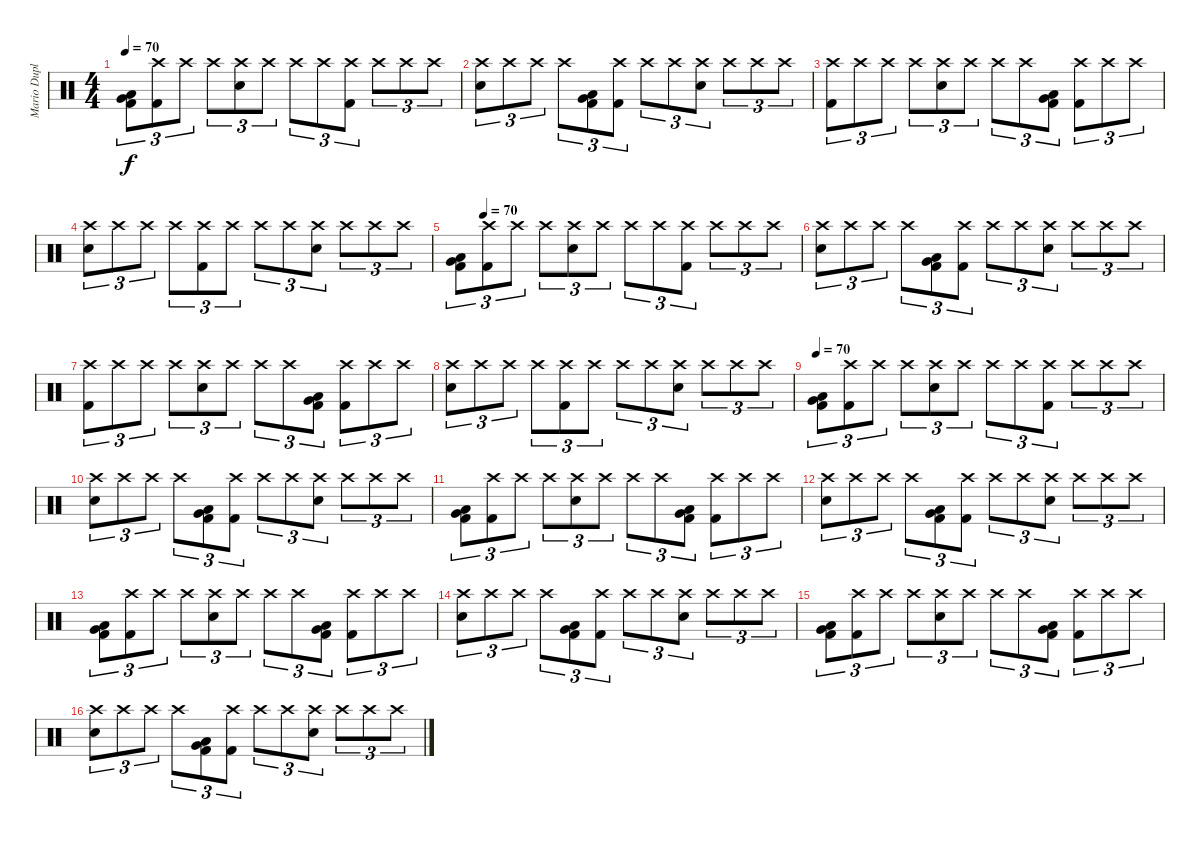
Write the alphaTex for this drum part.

\track ("Mario Duplantier " "Mario Dupl") {instrument percussion}
\staff {score}
\articulation defaults
\ts (4 4)
\tempo 70
\clef neutral
\ks c
("Kick (hit) 2" "Very Low Tom (hit)" "Low Tom (hit)").8{tu (3 2) dy f} ("Crash high (hit)" "Kick (hit) 2").8{tu (3 2)} "Crash high (hit)".8{tu (3 2)} "Crash high (hit)".8{tu (3 2)} ("Crash high (hit)" "Electric Snare (hit)").8{tu (3 2)} "Crash high (hit)".8{tu (3 2)} "Crash high (hit)".8{tu (3 2)} "Crash high (hit)".8{tu (3 2)} ("Crash high (hit)" "Kick (hit) 2").8{tu (3 2)} "Crash high (hit)".8{tu (3 2)} "Crash high (hit)".8{tu (3 2)} "Crash high (hit)".8{tu (3 2)} |
("Crash high (hit)" "Electric Snare (hit)").8{tu (3 2)} "Crash high (hit)".8{tu (3 2)} "Crash high (hit)".8{tu (3 2)} "Crash high (hit)".8{tu (3 2)} ("Kick (hit) 2" "Very Low Tom (hit)" "Low Tom (hit)").8{tu (3 2)} ("Crash high (hit)" "Kick (hit) 2").8{tu (3 2)} "Crash high (hit)".8{tu (3 2)} "Crash high (hit)".8{tu (3 2)} ("Crash high (hit)" "Electric Snare (hit)").8{tu (3 2)} "Crash high (hit)".8{tu (3 2)} "Crash high (hit)".8{tu (3 2)} "Crash high (hit)".8{tu (3 2)} |
("Crash high (hit)" "Kick (hit) 2").8{tu (3 2)} "Crash high (hit)".8{tu (3 2)} "Crash high (hit)".8{tu (3 2)} "Crash high (hit)".8{tu (3 2)} ("Crash high (hit)" "Electric Snare (hit)").8{tu (3 2)} "Crash high (hit)".8{tu (3 2)} "Crash high (hit)".8{tu (3 2)} "Crash high (hit)".8{tu (3 2)} ("Kick (hit) 2" "Low Tom (hit)" "Very Low Tom (hit)").8{tu (3 2)} ("Crash high (hit)" "Kick (hit) 2").8{tu (3 2)} "Crash high (hit)".8{tu (3 2)} "Crash high (hit)".8{tu (3 2)} |
("Crash high (hit)" "Electric Snare (hit)").8{tu (3 2)} "Crash high (hit)".8{tu (3 2)} "Crash high (hit)".8{tu (3 2)} "Crash high (hit)".8{tu (3 2)} ("Crash high (hit)" "Kick (hit) 2").8{tu (3 2)} "Crash high (hit)".8{tu (3 2)} "Crash high (hit)".8{tu (3 2)} "Crash high (hit)".8{tu (3 2)} ("Crash high (hit)" "Electric Snare (hit)").8{tu (3 2)} "Crash high (hit)".8{tu (3 2)} "Crash high (hit)".8{tu (3 2)} "Crash high (hit)".8{tu (3 2)} |
\tempo (70 0.08333333333333333)
("Kick (hit) 2" "Very Low Tom (hit)" "Low Tom (hit)").8{tu (3 2)} ("Crash high (hit)" "Kick (hit) 2").8{tu (3 2)} "Crash high (hit)".8{tu (3 2)} "Crash high (hit)".8{tu (3 2)} ("Crash high (hit)" "Electric Snare (hit)").8{tu (3 2)} "Crash high (hit)".8{tu (3 2)} "Crash high (hit)".8{tu (3 2)} "Crash high (hit)".8{tu (3 2)} ("Crash high (hit)" "Kick (hit) 2").8{tu (3 2)} "Crash high (hit)".8{tu (3 2)} "Crash high (hit)".8{tu (3 2)} "Crash high (hit)".8{tu (3 2)} |
("Crash high (hit)" "Electric Snare (hit)").8{tu (3 2)} "Crash high (hit)".8{tu (3 2)} "Crash high (hit)".8{tu (3 2)} "Crash high (hit)".8{tu (3 2)} ("Kick (hit) 2" "Very Low Tom (hit)" "Low Tom (hit)").8{tu (3 2)} ("Crash high (hit)" "Kick (hit) 2").8{tu (3 2)} "Crash high (hit)".8{tu (3 2)} "Crash high (hit)".8{tu (3 2)} ("Crash high (hit)" "Electric Snare (hit)").8{tu (3 2)} "Crash high (hit)".8{tu (3 2)} "Crash high (hit)".8{tu (3 2)} "Crash high (hit)".8{tu (3 2)} |
("Crash high (hit)" "Kick (hit) 2").8{tu (3 2)} "Crash high (hit)".8{tu (3 2)} "Crash high (hit)".8{tu (3 2)} "Crash high (hit)".8{tu (3 2)} ("Crash high (hit)" "Electric Snare (hit)").8{tu (3 2)} "Crash high (hit)".8{tu (3 2)} "Crash high (hit)".8{tu (3 2)} "Crash high (hit)".8{tu (3 2)} ("Kick (hit) 2" "Low Tom (hit)" "Very Low Tom (hit)").8{tu (3 2)} ("Crash high (hit)" "Kick (hit) 2").8{tu (3 2)} "Crash high (hit)".8{tu (3 2)} "Crash high (hit)".8{tu (3 2)} |
("Crash high (hit)" "Electric Snare (hit)").8{tu (3 2)} "Crash high (hit)".8{tu (3 2)} "Crash high (hit)".8{tu (3 2)} "Crash high (hit)".8{tu (3 2)} ("Crash high (hit)" "Kick (hit) 2").8{tu (3 2)} "Crash high (hit)".8{tu (3 2)} "Crash high (hit)".8{tu (3 2)} "Crash high (hit)".8{tu (3 2)} ("Crash high (hit)" "Electric Snare (hit)").8{tu (3 2)} "Crash high (hit)".8{tu (3 2)} "Crash high (hit)".8{tu (3 2)} "Crash high (hit)".8{tu (3 2)} |
\tempo 70
("Kick (hit) 2" "Very Low Tom (hit)" "Low Tom (hit)").8{tu (3 2)} ("Crash high (hit)" "Kick (hit) 2").8{tu (3 2)} "Crash high (hit)".8{tu (3 2)} "Crash high (hit)".8{tu (3 2)} ("Crash high (hit)" "Electric Snare (hit)").8{tu (3 2)} "Crash high (hit)".8{tu (3 2)} "Crash high (hit)".8{tu (3 2)} "Crash high (hit)".8{tu (3 2)} ("Crash high (hit)" "Kick (hit) 2").8{tu (3 2)} "Crash high (hit)".8{tu (3 2)} "Crash high (hit)".8{tu (3 2)} "Crash high (hit)".8{tu (3 2)} |
("Crash high (hit)" "Electric Snare (hit)").8{tu (3 2)} "Crash high (hit)".8{tu (3 2)} "Crash high (hit)".8{tu (3 2)} "Crash high (hit)".8{tu (3 2)} ("Kick (hit) 2" "Very Low Tom (hit)" "Low Tom (hit)").8{tu (3 2)} ("Crash high (hit)" "Kick (hit) 2").8{tu (3 2)} "Crash high (hit)".8{tu (3 2)} "Crash high (hit)".8{tu (3 2)} ("Crash high (hit)" "Electric Snare (hit)").8{tu (3 2)} "Crash high (hit)".8{tu (3 2)} "Crash high (hit)".8{tu (3 2)} "Crash high (hit)".8{tu (3 2)} |
("Kick (hit) 2" "Very Low Tom (hit)" "Low Tom (hit)").8{tu (3 2)} ("Crash high (hit)" "Kick (hit) 2").8{tu (3 2)} "Crash high (hit)".8{tu (3 2)} "Crash high (hit)".8{tu (3 2)} ("Crash high (hit)" "Electric Snare (hit)").8{tu (3 2)} "Crash high (hit)".8{tu (3 2)} "Crash high (hit)".8{tu (3 2)} "Crash high (hit)".8{tu (3 2)} ("Low Tom (hit)" "Kick (hit) 2" "Very Low Tom (hit)").8{tu (3 2)} ("Crash high (hit)" "Kick (hit) 2").8{tu (3 2)} "Crash high (hit)".8{tu (3 2)} "Crash high (hit)".8{tu (3 2)} |
("Crash high (hit)" "Electric Snare (hit)").8{tu (3 2)} "Crash high (hit)".8{tu (3 2)} "Crash high (hit)".8{tu (3 2)} "Crash high (hit)".8{tu (3 2)} ("Low Tom (hit)" "Very Low Tom (hit)" "Kick (hit) 2").8{tu (3 2)} ("Crash high (hit)" "Kick (hit) 2").8{tu (3 2)} "Crash high (hit)".8{tu (3 2)} "Crash high (hit)".8{tu (3 2)} ("Crash high (hit)" "Electric Snare (hit)").8{tu (3 2)} "Crash high (hit)".8{tu (3 2)} "Crash high (hit)".8{tu (3 2)} "Crash high (hit)".8{tu (3 2)} |
("Kick (hit) 2" "Very Low Tom (hit)" "Low Tom (hit)").8{tu (3 2)} ("Crash high (hit)" "Kick (hit) 2").8{tu (3 2)} "Crash high (hit)".8{tu (3 2)} "Crash high (hit)".8{tu (3 2)} ("Crash high (hit)" "Electric Snare (hit)").8{tu (3 2)} "Crash high (hit)".8{tu (3 2)} "Crash high (hit)".8{tu (3 2)} "Crash high (hit)".8{tu (3 2)} ("Low Tom (hit)" "Kick (hit) 2" "Very Low Tom (hit)").8{tu (3 2)} ("Crash high (hit)" "Kick (hit) 2").8{tu (3 2)} "Crash high (hit)".8{tu (3 2)} "Crash high (hit)".8{tu (3 2)} |
("Crash high (hit)" "Electric Snare (hit)").8{tu (3 2)} "Crash high (hit)".8{tu (3 2)} "Crash high (hit)".8{tu (3 2)} "Crash high (hit)".8{tu (3 2)} ("Low Tom (hit)" "Very Low Tom (hit)" "Kick (hit) 2").8{tu (3 2)} ("Crash high (hit)" "Kick (hit) 2").8{tu (3 2)} "Crash high (hit)".8{tu (3 2)} "Crash high (hit)".8{tu (3 2)} ("Crash high (hit)" "Electric Snare (hit)").8{tu (3 2)} "Crash high (hit)".8{tu (3 2)} "Crash high (hit)".8{tu (3 2)} "Crash high (hit)".8{tu (3 2)} |
("Kick (hit) 2" "Very Low Tom (hit)" "Low Tom (hit)").8{tu (3 2)} ("Crash high (hit)" "Kick (hit) 2").8{tu (3 2)} "Crash high (hit)".8{tu (3 2)} "Crash high (hit)".8{tu (3 2)} ("Crash high (hit)" "Electric Snare (hit)").8{tu (3 2)} "Crash high (hit)".8{tu (3 2)} "Crash high (hit)".8{tu (3 2)} "Crash high (hit)".8{tu (3 2)} ("Low Tom (hit)" "Kick (hit) 2" "Very Low Tom (hit)").8{tu (3 2)} ("Crash high (hit)" "Kick (hit) 2").8{tu (3 2)} "Crash high (hit)".8{tu (3 2)} "Crash high (hit)".8{tu (3 2)} |
("Crash high (hit)" "Electric Snare (hit)").8{tu (3 2)} "Crash high (hit)".8{tu (3 2)} "Crash high (hit)".8{tu (3 2)} "Crash high (hit)".8{tu (3 2)} ("Low Tom (hit)" "Very Low Tom (hit)" "Kick (hit) 2").8{tu (3 2)} ("Crash high (hit)" "Kick (hit) 2").8{tu (3 2)} "Crash high (hit)".8{tu (3 2)} "Crash high (hit)".8{tu (3 2)} ("Crash high (hit)" "Electric Snare (hit)").8{tu (3 2)} "Crash high (hit)".8{tu (3 2)} "Crash high (hit)".8{tu (3 2)} "Crash high (hit)".8{tu (3 2)}
